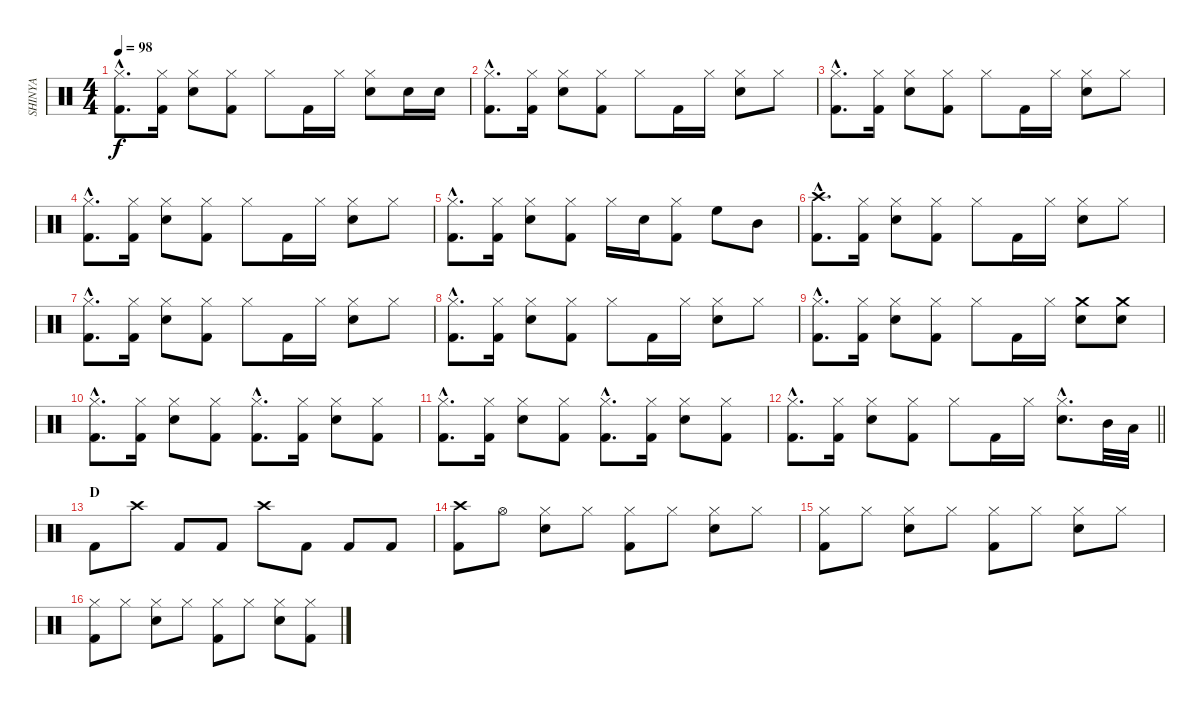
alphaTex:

\track ("SHINYA" "SHINYA") {instrument percussion}
\staff {score}
\articulation defaults
\ts (4 4)
\tempo 98
\clef neutral
\ks c
("Hi-Hat (closed)"{hac} "Kick (hit) 2"{hac}).8{d dy f} ("Hi-Hat (closed)" "Kick (hit) 2").16 ("Hi-Hat (closed)" "Snare (hit) 2").8 ("Hi-Hat (closed)" "Kick (hit) 2").8 "Hi-Hat (closed)".8 "Kick (hit) 2".16 "Hi-Hat (closed)".16 ("Hi-Hat (closed)" "Snare (hit) 2").8 "Snare (hit) 2".16 "Snare (hit) 2".16 |
("Hi-Hat (closed)"{hac} "Kick (hit) 2"{hac}).8{d} ("Hi-Hat (closed)" "Kick (hit) 2").16 ("Hi-Hat (closed)" "Snare (hit) 2").8 ("Hi-Hat (closed)" "Kick (hit) 2").8 "Hi-Hat (closed)".8 "Kick (hit) 2".16 "Hi-Hat (closed)".16 ("Hi-Hat (closed)" "Snare (hit) 2").8 "Hi-Hat (closed)".8 |
("Hi-Hat (closed)"{hac} "Kick (hit) 2"{hac}).8{d} ("Hi-Hat (closed)" "Kick (hit) 2").16 ("Hi-Hat (closed)" "Snare (hit) 2").8 ("Hi-Hat (closed)" "Kick (hit) 2").8 "Hi-Hat (closed)".8 "Kick (hit) 2".16 "Hi-Hat (closed)".16 ("Hi-Hat (closed)" "Snare (hit) 2").8 "Hi-Hat (closed)".8 |
("Hi-Hat (closed)"{hac} "Kick (hit) 2"{hac}).8{d} ("Hi-Hat (closed)" "Kick (hit) 2").16 ("Hi-Hat (closed)" "Snare (hit) 2").8 ("Hi-Hat (closed)" "Kick (hit) 2").8 "Hi-Hat (closed)".8 "Kick (hit) 2".16 "Hi-Hat (closed)".16 ("Hi-Hat (closed)" "Snare (hit) 2").8 "Hi-Hat (closed)".8 |
("Hi-Hat (closed)"{hac} "Kick (hit) 2"{hac}).8{d} ("Hi-Hat (closed)" "Kick (hit) 2").16 ("Hi-Hat (closed)" "Snare (hit) 2").8 ("Hi-Hat (closed)" "Kick (hit) 2").8 "Hi-Hat (closed)".16 "Snare (hit) 2".16 ("Hi-Hat (closed)" "Kick (hit) 2").8 "High Floor Tom (hit)".8 "Mid Tom (hit)".8 |
("Crash high (hit)"{hac} "Kick (hit) 2"{hac}).8{d} ("Hi-Hat (closed)" "Kick (hit) 2").16 ("Hi-Hat (closed)" "Snare (hit) 2").8 ("Hi-Hat (closed)" "Kick (hit) 2").8 "Hi-Hat (closed)".8 "Kick (hit) 2".16 "Hi-Hat (closed)".16 ("Hi-Hat (closed)" "Snare (hit) 2").8 "Hi-Hat (closed)".8 |
("Hi-Hat (closed)"{hac} "Kick (hit) 2"{hac}).8{d} ("Hi-Hat (closed)" "Kick (hit) 2").16 ("Hi-Hat (closed)" "Snare (hit) 2").8 ("Hi-Hat (closed)" "Kick (hit) 2").8 "Hi-Hat (closed)".8 "Kick (hit) 2".16 "Hi-Hat (closed)".16 ("Hi-Hat (closed)" "Snare (hit) 2").8 "Hi-Hat (closed)".8 |
("Hi-Hat (closed)"{hac} "Kick (hit) 2"{hac}).8{d} ("Hi-Hat (closed)" "Kick (hit) 2").16 ("Hi-Hat (closed)" "Snare (hit) 2").8 ("Hi-Hat (closed)" "Kick (hit) 2").8 "Hi-Hat (closed)".8 "Kick (hit) 2".16 "Hi-Hat (closed)".16 ("Hi-Hat (closed)" "Snare (hit) 2").8 "Hi-Hat (closed)".8 |
("Hi-Hat (closed)"{hac} "Kick (hit) 2"{hac}).8{d} ("Hi-Hat (closed)" "Kick (hit) 2").16 ("Hi-Hat (closed)" "Snare (hit) 2").8 ("Hi-Hat (closed)" "Kick (hit) 2").8 "Hi-Hat (closed)".8 "Kick (hit) 2".16 "Hi-Hat (closed)".16 ("Crash medium (hit)" "Snare (hit) 2").8 ("Crash medium (hit)" "Snare (hit) 2").8 |
("Hi-Hat (closed)"{hac} "Kick (hit) 2"{hac}).8{d} ("Hi-Hat (closed)" "Kick (hit) 2").16 ("Hi-Hat (closed)" "Snare (hit) 2").8 ("Hi-Hat (closed)" "Kick (hit) 2").8 ("Hi-Hat (closed)"{hac} "Kick (hit) 2"{hac}).8{d} ("Hi-Hat (closed)" "Kick (hit) 2").16 ("Hi-Hat (closed)" "Snare (hit) 2").8 ("Hi-Hat (closed)" "Kick (hit) 2").8 |
("Hi-Hat (closed)"{hac} "Kick (hit) 2"{hac}).8{d} ("Hi-Hat (closed)" "Kick (hit) 2").16 ("Hi-Hat (closed)" "Snare (hit) 2").8 ("Hi-Hat (closed)" "Kick (hit) 2").8 ("Hi-Hat (closed)"{hac} "Kick (hit) 2"{hac}).8{d} ("Hi-Hat (closed)" "Kick (hit) 2").16 ("Hi-Hat (closed)" "Snare (hit) 2").8 ("Hi-Hat (closed)" "Kick (hit) 2").8 |
\barLineRight lightlight
("Hi-Hat (closed)"{hac} "Kick (hit) 2"{hac}).8{d} ("Hi-Hat (closed)" "Kick (hit) 2").16 ("Hi-Hat (closed)" "Snare (hit) 2").8 ("Hi-Hat (closed)" "Kick (hit) 2").8 "Hi-Hat (closed)".8 "Kick (hit) 2".16 "Hi-Hat (closed)".16 ("Hi-Hat (closed)"{hac} "Snare (hit) 2"{hac}).8{d} "Mid Tom (hit)".32 "Low Tom (hit)".32 |
\section ("" "D")
"Kick (hit) 2".8 "Crash high (hit)".8 "Kick (hit) 2".8 "Kick (hit) 2".8 "Crash high (hit)".8 "Kick (hit) 2".8 "Kick (hit) 2".8 "Kick (hit) 2".8 |
("Crash high (hit)" "Kick (hit) 2").8 "Hi-Hat (open)".8 ("Hi-Hat (closed)" "Snare (hit) 2").8 "Hi-Hat (closed)".8 ("Hi-Hat (closed)" "Kick (hit) 2").8 "Hi-Hat (closed)".8 ("Hi-Hat (closed)" "Snare (hit) 2").8 "Hi-Hat (closed)".8 |
("Hi-Hat (closed)" "Kick (hit) 2").8 "Hi-Hat (closed)".8 ("Hi-Hat (closed)" "Snare (hit) 2").8 "Hi-Hat (closed)".8 ("Hi-Hat (closed)" "Kick (hit) 2").8 "Hi-Hat (closed)".8 ("Hi-Hat (closed)" "Snare (hit) 2").8 "Hi-Hat (closed)".8 |
("Hi-Hat (closed)" "Kick (hit) 2").8 "Hi-Hat (closed)".8 ("Hi-Hat (closed)" "Snare (hit) 2").8 "Hi-Hat (closed)".8 ("Hi-Hat (closed)" "Kick (hit) 2").8 "Hi-Hat (closed)".8 ("Hi-Hat (closed)" "Snare (hit) 2").8 ("Hi-Hat (closed)" "Kick (hit) 2").8
